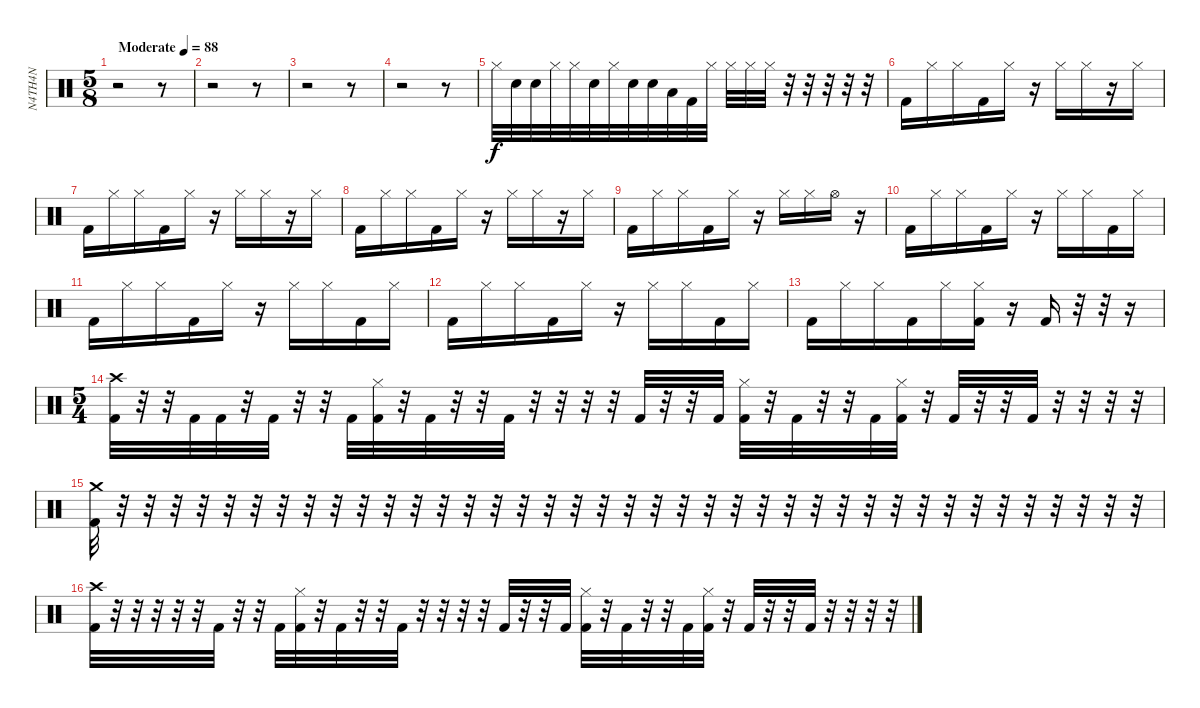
\track ("N4TH4N" "N4TH4N") {instrument percussion}
\staff {score}
\articulation defaults
\ts (5 8)
\tempo (88 "Moderate")
\clef neutral
\ks c
r.2{dy f} r.8 |
r.2 r.8 |
r.2 r.8 |
r.2 r.8 |
"Hi-Hat (closed)".32 "Snare (hit) 2".32 "Snare (hit) 2".32 "Hi-Hat (closed)".32 "Hi-Hat (closed)".32 "Snare (hit) 2".32 "Hi-Hat (closed)".32 "Snare (hit) 2".32 "Snare (hit) 2".32 "Low Floor Tom (hit)".32 "Kick (hit) 2".32 "Hi-Hat (closed)".32 "Hi-Hat (closed)".32 "Hi-Hat (closed)".32 "Hi-Hat (closed)".32 r.32 r.32 r.32 r.32 r.32 |
"Kick (hit) 2".16 "Hi-Hat (closed)".16 "Hi-Hat (closed)".16 "Kick (hit) 2".16 "Hi-Hat (closed)".16 r.16 "Hi-Hat (closed)".16 "Hi-Hat (closed)".16 r.16 "Hi-Hat (closed)".16 |
"Kick (hit) 2".16 "Hi-Hat (closed)".16 "Hi-Hat (closed)".16 "Kick (hit) 2".16 "Hi-Hat (closed)".16 r.16 "Hi-Hat (closed)".16 "Hi-Hat (closed)".16 r.16 "Hi-Hat (closed)".16 |
"Kick (hit) 2".16 "Hi-Hat (closed)".16 "Hi-Hat (closed)".16 "Kick (hit) 2".16 "Hi-Hat (closed)".16 r.16 "Hi-Hat (closed)".16 "Hi-Hat (closed)".16 r.16 "Hi-Hat (closed)".16 |
"Kick (hit) 2".16 "Hi-Hat (closed)".16 "Hi-Hat (closed)".16 "Kick (hit) 2".16 "Hi-Hat (closed)".16 r.16 "Hi-Hat (closed)".16 "Hi-Hat (closed)".16 "Hi-Hat (open)".16 r.16 |
"Kick (hit) 2".16 "Hi-Hat (closed)".16 "Hi-Hat (closed)".16 "Kick (hit) 2".16 "Hi-Hat (closed)".16 r.16 "Hi-Hat (closed)".16 "Hi-Hat (closed)".16 "Kick (hit) 2".16 "Hi-Hat (closed)".16 |
"Kick (hit) 2".16 "Hi-Hat (closed)".16 "Hi-Hat (closed)".16 "Kick (hit) 2".16 "Hi-Hat (closed)".16 r.16 "Hi-Hat (closed)".16 "Hi-Hat (closed)".16 "Kick (hit) 2".16 "Hi-Hat (closed)".16 |
"Kick (hit) 2".16 "Hi-Hat (closed)".16 "Hi-Hat (closed)".16 "Kick (hit) 2".16 "Hi-Hat (closed)".16 r.16 "Hi-Hat (closed)".16 "Hi-Hat (closed)".16 "Kick (hit) 2".16 "Hi-Hat (closed)".16 |
"Kick (hit) 2".16 "Hi-Hat (closed)".16 "Hi-Hat (closed)".16 "Kick (hit) 2".16 "Hi-Hat (closed)".16 ("Kick (hit) 2" "Hi-Hat (closed)").16 r.16 "Kick (hit) 2".16 r.32 r.32 r.16 |
\ts (5 4)
("Kick (hit) 2" "Crash high (hit)").32 r.32 r.32 "Kick (hit) 2".32 "Kick (hit) 2".32 r.32 "Kick (hit) 2".32 r.32 r.32 "Kick (hit) 2".32 ("Kick (hit) 2" "Hi-Hat (closed)").32 r.32 "Kick (hit) 2".32 r.32 r.32 "Kick (hit) 2".32 r.32 r.32 r.32 r.32 "Kick (hit) 2".32 r.32 r.32 "Kick (hit) 2".32 ("Kick (hit) 2" "Hi-Hat (closed)").32 r.32 "Kick (hit) 2".32 r.32 r.32 "Kick (hit) 2".32 ("Kick (hit) 2" "Hi-Hat (closed)").32 r.32 "Kick (hit) 2".32 r.32 r.32 "Kick (hit) 2".32 r.32 r.32 r.32 r.32 |
("Crash medium (hit)" "Kick (hit) 2").32 r.32 r.32 r.32 r.32 r.32 r.32 r.32 r.32 r.32 r.32 r.32 r.32 r.32 r.32 r.32 r.32 r.32 r.32 r.32 r.32 r.32 r.32 r.32 r.32 r.32 r.32 r.32 r.32 r.32 r.32 r.32 r.32 r.32 r.32 r.32 r.32 r.32 r.32 r.32 |
("Kick (hit) 2" "Crash high (hit)").32 r.32 r.32 r.32 r.32 r.32 "Kick (hit) 2".32 r.32 r.32 "Kick (hit) 2".32 ("Kick (hit) 2" "Hi-Hat (closed)").32 r.32 "Kick (hit) 2".32 r.32 r.32 "Kick (hit) 2".32 r.32 r.32 r.32 r.32 "Kick (hit) 2".32 r.32 r.32 "Kick (hit) 2".32 ("Kick (hit) 2" "Hi-Hat (closed)").32 r.32 "Kick (hit) 2".32 r.32 r.32 "Kick (hit) 2".32 ("Kick (hit) 2" "Hi-Hat (closed)").32 r.32 "Kick (hit) 2".32 r.32 r.32 "Kick (hit) 2".32 r.32 r.32 r.32 r.32
